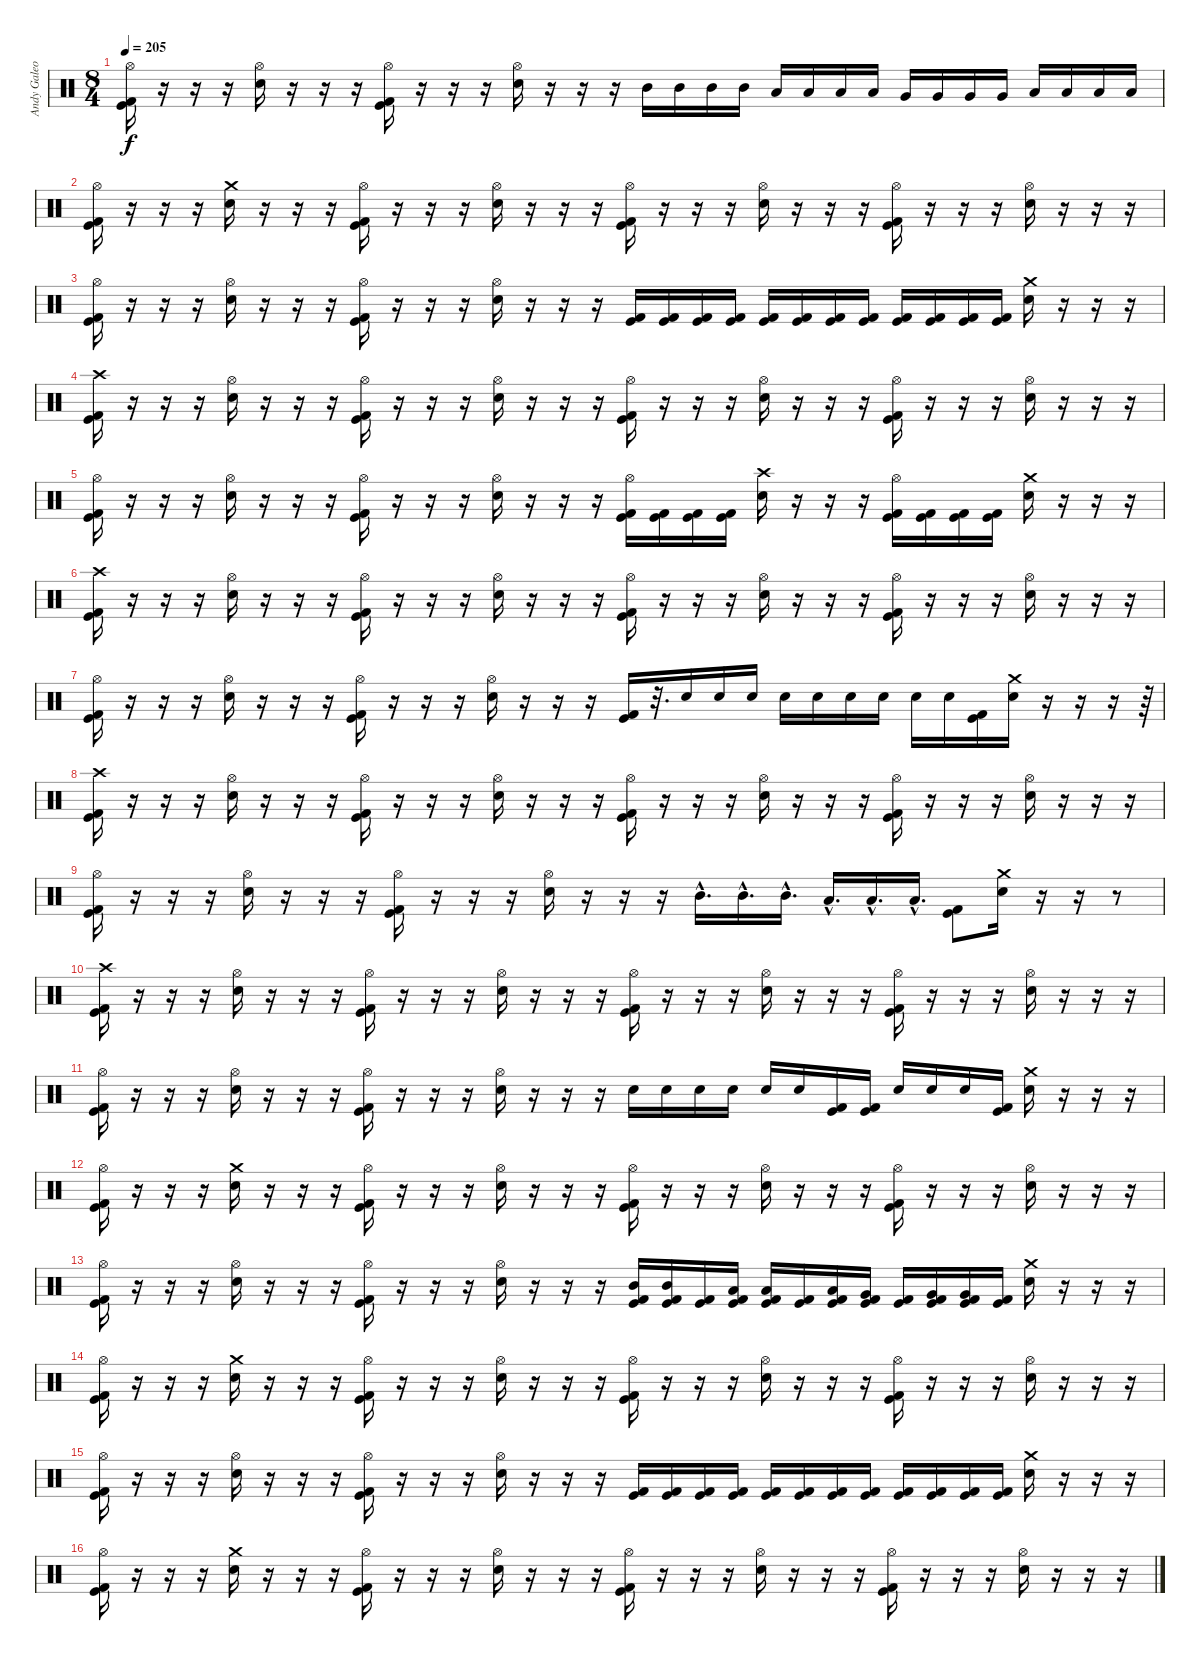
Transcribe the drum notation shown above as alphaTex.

\track ("Andy Galeon - Drums" "Andy Galeo") {instrument percussion}
\staff {score}
\articulation defaults
\ts (8 4)
\tempo 205
\clef neutral
\ks c
("Hi-Hat (open)" "Kick (hit) 2" "Kick (hit)").16{dy f} r.16 r.16 r.16 ("Hi-Hat (open)" "Electric Snare (hit)").16 r.16 r.16 r.16 ("Hi-Hat (open)" "Kick (hit) 2" "Kick (hit)").16 r.16 r.16 r.16 ("Hi-Hat (open)" "Electric Snare (hit)").16 r.16 r.16 r.16 "Mid Tom (hit)".16 "Mid Tom (hit)".16 "Mid Tom (hit)".16 "Mid Tom (hit)".16 "Low Tom (hit)".16 "Low Tom (hit)".16 "Low Tom (hit)".16 "Low Tom (hit)".16 "Very Low Tom (hit)".16 "Very Low Tom (hit)".16 "Very Low Tom (hit)".16 "Very Low Tom (hit)".16 "Low Floor Tom (hit)".16 "Low Floor Tom (hit)".16 "Low Floor Tom (hit)".16 "Low Floor Tom (hit)".16 |
("Hi-Hat (open)" "Kick (hit) 2" "Kick (hit)").16 r.16 r.16 r.16 ("Crash medium (hit)" "Electric Snare (hit)").16 r.16 r.16 r.16 ("Hi-Hat (open)" "Kick (hit) 2" "Kick (hit)").16 r.16 r.16 r.16 ("Hi-Hat (open)" "Electric Snare (hit)").16 r.16 r.16 r.16 ("Hi-Hat (open)" "Kick (hit) 2" "Kick (hit)").16 r.16 r.16 r.16 ("Hi-Hat (open)" "Electric Snare (hit)").16 r.16 r.16 r.16 ("Hi-Hat (open)" "Kick (hit) 2" "Kick (hit)").16 r.16 r.16 r.16 ("Hi-Hat (open)" "Electric Snare (hit)").16 r.16 r.16 r.16 |
("Hi-Hat (open)" "Kick (hit) 2" "Kick (hit)").16 r.16 r.16 r.16 ("Hi-Hat (open)" "Electric Snare (hit)").16 r.16 r.16 r.16 ("Hi-Hat (open)" "Kick (hit) 2" "Kick (hit)").16 r.16 r.16 r.16 ("Hi-Hat (open)" "Electric Snare (hit)").16 r.16 r.16 r.16 ("Kick (hit) 2" "Kick (hit)").16 ("Kick (hit) 2" "Kick (hit)").16 ("Kick (hit)" "Kick (hit) 2").16 ("Kick (hit) 2" "Kick (hit)").16 ("Kick (hit) 2" "Kick (hit)").16 ("Kick (hit) 2" "Kick (hit)").16 ("Kick (hit) 2" "Kick (hit)").16 ("Kick (hit) 2" "Kick (hit)").16 ("Kick (hit) 2" "Kick (hit)").16 ("Kick (hit) 2" "Kick (hit)").16 ("Kick (hit) 2" "Kick (hit)").16 ("Kick (hit) 2" "Kick (hit)").16 ("Crash medium (hit)" "Electric Snare (hit)").16 r.16 r.16 r.16 |
("Crash high (hit)" "Kick (hit) 2" "Kick (hit)").16 r.16 r.16 r.16 ("Hi-Hat (open)" "Electric Snare (hit)").16 r.16 r.16 r.16 ("Hi-Hat (open)" "Kick (hit) 2" "Kick (hit)").16 r.16 r.16 r.16 ("Hi-Hat (open)" "Electric Snare (hit)").16 r.16 r.16 r.16 ("Hi-Hat (open)" "Kick (hit) 2" "Kick (hit)").16 r.16 r.16 r.16 ("Hi-Hat (open)" "Electric Snare (hit)").16 r.16 r.16 r.16 ("Hi-Hat (open)" "Kick (hit) 2" "Kick (hit)").16 r.16 r.16 r.16 ("Hi-Hat (open)" "Electric Snare (hit)").16 r.16 r.16 r.16 |
("Hi-Hat (open)" "Kick (hit) 2" "Kick (hit)").16 r.16 r.16 r.16 ("Hi-Hat (open)" "Electric Snare (hit)").16 r.16 r.16 r.16 ("Hi-Hat (open)" "Kick (hit) 2" "Kick (hit)").16 r.16 r.16 r.16 ("Hi-Hat (open)" "Electric Snare (hit)").16 r.16 r.16 r.16 ("Hi-Hat (open)" "Kick (hit) 2" "Kick (hit)").16 ("Kick (hit) 2" "Kick (hit)").16 ("Kick (hit)" "Kick (hit) 2").16 ("Kick (hit) 2" "Kick (hit)").16 ("Crash high (hit)" "Electric Snare (hit)").16 r.16 r.16 r.16 ("Hi-Hat (open)" "Kick (hit) 2" "Kick (hit)").16 ("Kick (hit) 2" "Kick (hit)").16 ("Kick (hit) 2" "Kick (hit)").16 ("Kick (hit) 2" "Kick (hit)").16 ("Crash medium (hit)" "Electric Snare (hit)").16 r.16 r.16 r.16 |
("Crash high (hit)" "Kick (hit) 2" "Kick (hit)").16 r.16 r.16 r.16 ("Hi-Hat (open)" "Electric Snare (hit)").16 r.16 r.16 r.16 ("Hi-Hat (open)" "Kick (hit) 2" "Kick (hit)").16 r.16 r.16 r.16 ("Hi-Hat (open)" "Electric Snare (hit)").16 r.16 r.16 r.16 ("Hi-Hat (open)" "Kick (hit) 2" "Kick (hit)").16 r.16 r.16 r.16 ("Hi-Hat (open)" "Electric Snare (hit)").16 r.16 r.16 r.16 ("Hi-Hat (open)" "Kick (hit) 2" "Kick (hit)").16 r.16 r.16 r.16 ("Hi-Hat (open)" "Electric Snare (hit)").16 r.16 r.16 r.16 |
("Hi-Hat (open)" "Kick (hit) 2" "Kick (hit)").16 r.16 r.16 r.16 ("Hi-Hat (open)" "Electric Snare (hit)").16 r.16 r.16 r.16 ("Hi-Hat (open)" "Kick (hit) 2" "Kick (hit)").16 r.16 r.16 r.16 ("Hi-Hat (open)" "Electric Snare (hit)").16 r.16 r.16 r.16 ("Kick (hit) 2" "Kick (hit)").16 r.32{d} "Electric Snare (hit)".16 "Electric Snare (hit)".16 "Electric Snare (hit)".16 "Electric Snare (hit)".16 "Electric Snare (hit)".16 "Electric Snare (hit)".16 "Electric Snare (hit)".16 "Electric Snare (hit)".16 "Electric Snare (hit)".16 ("Kick (hit) 2" "Kick (hit)").16 ("Crash medium (hit)" "Electric Snare (hit)").16 r.16 r.16 r.16 r.64 |
("Crash high (hit)" "Kick (hit) 2" "Kick (hit)").16 r.16 r.16 r.16 ("Hi-Hat (open)" "Electric Snare (hit)").16 r.16 r.16 r.16 ("Hi-Hat (open)" "Kick (hit) 2" "Kick (hit)").16 r.16 r.16 r.16 ("Hi-Hat (open)" "Electric Snare (hit)").16 r.16 r.16 r.16 ("Hi-Hat (open)" "Kick (hit) 2" "Kick (hit)").16 r.16 r.16 r.16 ("Hi-Hat (open)" "Electric Snare (hit)").16 r.16 r.16 r.16 ("Hi-Hat (open)" "Kick (hit) 2" "Kick (hit)").16 r.16 r.16 r.16 ("Hi-Hat (open)" "Electric Snare (hit)").16 r.16 r.16 r.16 |
("Hi-Hat (open)" "Kick (hit) 2" "Kick (hit)").16 r.16 r.16 r.16 ("Hi-Hat (open)" "Electric Snare (hit)").16 r.16 r.16 r.16 ("Hi-Hat (open)" "Kick (hit) 2" "Kick (hit)").16 r.16 r.16 r.16 ("Hi-Hat (open)" "Electric Snare (hit)").16 r.16 r.16 r.16 "Mid Tom (hit)"{hac}.16{d} "Mid Tom (hit)"{hac}.16{d} "Mid Tom (hit)"{hac}.16{d} "Low Tom (hit)"{hac}.16{d} "Low Tom (hit)"{hac}.16{d} "Low Tom (hit)"{hac}.16{d} ("Kick (hit) 2" "Kick (hit)").8 ("Crash medium (hit)" "Electric Snare (hit)").16 r.16 r.16 r.8 |
("Crash high (hit)" "Kick (hit) 2" "Kick (hit)").16 r.16 r.16 r.16 ("Hi-Hat (open)" "Electric Snare (hit)").16 r.16 r.16 r.16 ("Hi-Hat (open)" "Kick (hit) 2" "Kick (hit)").16 r.16 r.16 r.16 ("Hi-Hat (open)" "Electric Snare (hit)").16 r.16 r.16 r.16 ("Hi-Hat (open)" "Kick (hit) 2" "Kick (hit)").16 r.16 r.16 r.16 ("Hi-Hat (open)" "Electric Snare (hit)").16 r.16 r.16 r.16 ("Hi-Hat (open)" "Kick (hit) 2" "Kick (hit)").16 r.16 r.16 r.16 ("Hi-Hat (open)" "Electric Snare (hit)").16 r.16 r.16 r.16 |
("Hi-Hat (open)" "Kick (hit) 2" "Kick (hit)").16 r.16 r.16 r.16 ("Hi-Hat (open)" "Electric Snare (hit)").16 r.16 r.16 r.16 ("Hi-Hat (open)" "Kick (hit) 2" "Kick (hit)").16 r.16 r.16 r.16 ("Hi-Hat (open)" "Electric Snare (hit)").16 r.16 r.16 r.16 "Electric Snare (hit)".16 "Electric Snare (hit)".16 "Electric Snare (hit)".16 "Electric Snare (hit)".16 "Electric Snare (hit)".16 "Electric Snare (hit)".16 ("Kick (hit) 2" "Kick (hit)").16 ("Kick (hit) 2" "Kick (hit)").16 "Electric Snare (hit)".16 "Electric Snare (hit)".16 "Electric Snare (hit)".16 ("Kick (hit) 2" "Kick (hit)").16 ("Crash medium (hit)" "Electric Snare (hit)").16 r.16 r.16 r.16 |
("Hi-Hat (open)" "Kick (hit) 2" "Kick (hit)").16 r.16 r.16 r.16 ("Crash medium (hit)" "Electric Snare (hit)").16 r.16 r.16 r.16 ("Hi-Hat (open)" "Kick (hit) 2" "Kick (hit)").16 r.16 r.16 r.16 ("Hi-Hat (open)" "Electric Snare (hit)").16 r.16 r.16 r.16 ("Hi-Hat (open)" "Kick (hit) 2" "Kick (hit)").16 r.16 r.16 r.16 ("Hi-Hat (open)" "Electric Snare (hit)").16 r.16 r.16 r.16 ("Hi-Hat (open)" "Kick (hit) 2" "Kick (hit)").16 r.16 r.16 r.16 ("Hi-Hat (open)" "Electric Snare (hit)").16 r.16 r.16 r.16 |
("Hi-Hat (open)" "Kick (hit) 2" "Kick (hit)").16 r.16 r.16 r.16 ("Hi-Hat (open)" "Electric Snare (hit)").16 r.16 r.16 r.16 ("Hi-Hat (open)" "Kick (hit) 2" "Kick (hit)").16 r.16 r.16 r.16 ("Hi-Hat (open)" "Electric Snare (hit)").16 r.16 r.16 r.16 ("Mid Tom (hit)" "Kick (hit) 2" "Kick (hit)").16 ("Mid Tom (hit)" "Kick (hit) 2" "Kick (hit)").16 ("Kick (hit) 2" "Kick (hit)").16 ("Low Tom (hit)" "Kick (hit) 2" "Kick (hit)").16 ("Low Tom (hit)" "Kick (hit) 2" "Kick (hit)").16 ("Kick (hit) 2" "Kick (hit)").16 ("Low Tom (hit)" "Kick (hit) 2" "Kick (hit)").16 ("Very Low Tom (hit)" "Kick (hit) 2" "Kick (hit)").16 ("Kick (hit) 2" "Kick (hit)").16 ("Very Low Tom (hit)" "Kick (hit) 2" "Kick (hit)").16 ("Very Low Tom (hit)" "Kick (hit) 2" "Kick (hit)").16 ("Kick (hit) 2" "Kick (hit)").16 ("Crash medium (hit)" "Electric Snare (hit)").16 r.16 r.16 r.16 |
("Hi-Hat (open)" "Kick (hit) 2" "Kick (hit)").16 r.16 r.16 r.16 ("Crash medium (hit)" "Electric Snare (hit)").16 r.16 r.16 r.16 ("Hi-Hat (open)" "Kick (hit) 2" "Kick (hit)").16 r.16 r.16 r.16 ("Hi-Hat (open)" "Electric Snare (hit)").16 r.16 r.16 r.16 ("Hi-Hat (open)" "Kick (hit) 2" "Kick (hit)").16 r.16 r.16 r.16 ("Hi-Hat (open)" "Electric Snare (hit)").16 r.16 r.16 r.16 ("Hi-Hat (open)" "Kick (hit) 2" "Kick (hit)").16 r.16 r.16 r.16 ("Hi-Hat (open)" "Electric Snare (hit)").16 r.16 r.16 r.16 |
("Hi-Hat (open)" "Kick (hit) 2" "Kick (hit)").16 r.16 r.16 r.16 ("Hi-Hat (open)" "Electric Snare (hit)").16 r.16 r.16 r.16 ("Hi-Hat (open)" "Kick (hit) 2" "Kick (hit)").16 r.16 r.16 r.16 ("Hi-Hat (open)" "Electric Snare (hit)").16 r.16 r.16 r.16 ("Kick (hit) 2" "Kick (hit)").16 ("Kick (hit) 2" "Kick (hit)").16 ("Kick (hit)" "Kick (hit) 2").16 ("Kick (hit) 2" "Kick (hit)").16 ("Kick (hit) 2" "Kick (hit)").16 ("Kick (hit) 2" "Kick (hit)").16 ("Kick (hit) 2" "Kick (hit)").16 ("Kick (hit) 2" "Kick (hit)").16 ("Kick (hit) 2" "Kick (hit)").16 ("Kick (hit) 2" "Kick (hit)").16 ("Kick (hit) 2" "Kick (hit)").16 ("Kick (hit) 2" "Kick (hit)").16 ("Crash medium (hit)" "Electric Snare (hit)").16 r.16 r.16 r.16 |
("Hi-Hat (open)" "Kick (hit) 2" "Kick (hit)").16 r.16 r.16 r.16 ("Crash medium (hit)" "Electric Snare (hit)").16 r.16 r.16 r.16 ("Hi-Hat (open)" "Kick (hit) 2" "Kick (hit)").16 r.16 r.16 r.16 ("Hi-Hat (open)" "Electric Snare (hit)").16 r.16 r.16 r.16 ("Hi-Hat (open)" "Kick (hit) 2" "Kick (hit)").16 r.16 r.16 r.16 ("Hi-Hat (open)" "Electric Snare (hit)").16 r.16 r.16 r.16 ("Hi-Hat (open)" "Kick (hit) 2" "Kick (hit)").16 r.16 r.16 r.16 ("Hi-Hat (open)" "Electric Snare (hit)").16 r.16 r.16 r.16
